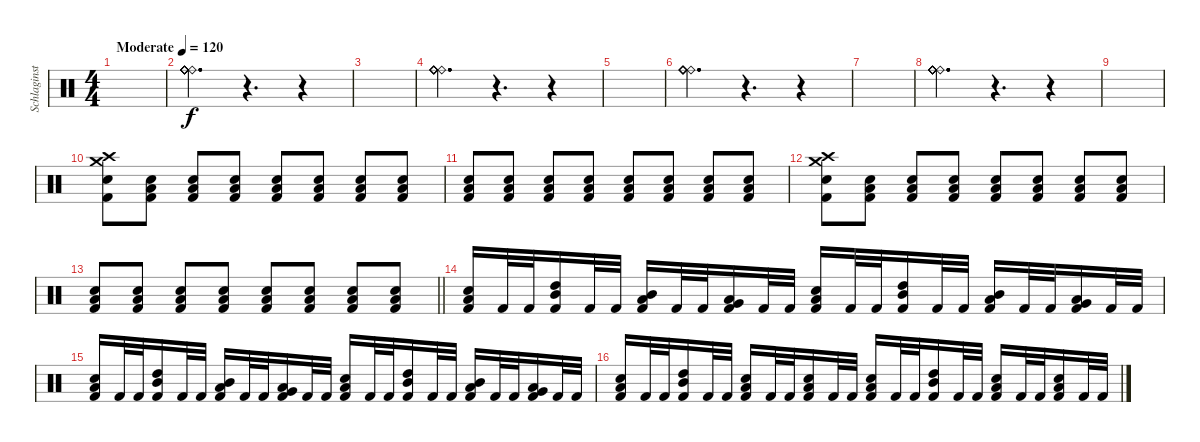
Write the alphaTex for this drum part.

\track ("Schlaginstrumente - Auswahl" "Schlaginst") {instrument percussion}
\staff {score}
\articulation defaults
\ts (4 4)
\tempo (120 "Moderate")
\clef neutral
\ks c
|
("Ride (bell)" "Ride (bell)" "Ride (bell)" "Ride (bell)" "Ride (bell)" "Ride (bell)").4{d} r.4{d} r.4 |
|
("Ride (bell)" "Ride (bell)" "Ride (bell)" "Ride (bell)" "Ride (bell)" "Ride (bell)").4{d} r.4{d} r.4 |
|
("Ride (bell)" "Ride (bell)" "Ride (bell)" "Ride (bell)" "Ride (bell)" "Ride (bell)").4{d} r.4{d} r.4 |
|
("Ride (bell)" "Ride (bell)" "Ride (bell)" "Ride (bell)" "Ride (bell)" "Ride (bell)").4{d} r.4{d} r.4 |
|
("Crash medium (hit)" "Crash high (hit)" "Kick (hit) 2" "Electric Snare (hit)").8 ("Kick (hit) 2" "Low Floor Tom (hit)" "Electric Snare (hit)").8 ("Kick (hit) 2" "Low Floor Tom (hit)" "Electric Snare (hit)").8 ("Kick (hit) 2" "Low Floor Tom (hit)" "Electric Snare (hit)").8 ("Kick (hit) 2" "Low Floor Tom (hit)" "Electric Snare (hit)").8 ("Kick (hit) 2" "Low Floor Tom (hit)" "Electric Snare (hit)").8 ("Kick (hit) 2" "Low Floor Tom (hit)" "Electric Snare (hit)").8 ("Kick (hit) 2" "Low Floor Tom (hit)" "Electric Snare (hit)").8 |
("Kick (hit) 2" "Low Floor Tom (hit)" "Electric Snare (hit)").8 ("Kick (hit) 2" "Low Floor Tom (hit)" "Electric Snare (hit)").8 ("Kick (hit) 2" "Low Floor Tom (hit)" "Electric Snare (hit)").8 ("Kick (hit) 2" "Low Floor Tom (hit)" "Electric Snare (hit)").8 ("Kick (hit) 2" "Low Floor Tom (hit)" "Electric Snare (hit)").8 ("Kick (hit) 2" "Low Floor Tom (hit)" "Electric Snare (hit)").8 ("Kick (hit) 2" "Low Floor Tom (hit)" "Electric Snare (hit)").8 ("Kick (hit) 2" "Low Floor Tom (hit)" "Electric Snare (hit)").8 |
("Crash medium (hit)" "Crash high (hit)" "Kick (hit) 2" "Electric Snare (hit)").8 ("Kick (hit) 2" "Low Floor Tom (hit)" "Electric Snare (hit)").8 ("Kick (hit) 2" "Low Floor Tom (hit)" "Electric Snare (hit)").8 ("Kick (hit) 2" "Low Floor Tom (hit)" "Electric Snare (hit)").8 ("Kick (hit) 2" "Low Floor Tom (hit)" "Electric Snare (hit)").8 ("Kick (hit) 2" "Low Floor Tom (hit)" "Electric Snare (hit)").8 ("Kick (hit) 2" "Low Floor Tom (hit)" "Electric Snare (hit)").8 ("Kick (hit) 2" "Low Floor Tom (hit)" "Electric Snare (hit)").8 |
\barLineRight lightlight
("Kick (hit) 2" "Low Floor Tom (hit)" "Electric Snare (hit)").8 ("Kick (hit) 2" "Low Floor Tom (hit)" "Electric Snare (hit)").8 ("Kick (hit) 2" "Low Floor Tom (hit)" "Electric Snare (hit)").8 ("Kick (hit) 2" "Low Floor Tom (hit)" "Electric Snare (hit)").8 ("Kick (hit) 2" "Low Floor Tom (hit)" "Electric Snare (hit)").8 ("Kick (hit) 2" "Low Floor Tom (hit)" "Electric Snare (hit)").8 ("Kick (hit) 2" "Low Floor Tom (hit)" "Electric Snare (hit)").8 ("Kick (hit) 2" "Low Floor Tom (hit)" "Electric Snare (hit)").8 |
("Low Floor Tom (hit)" "Electric Snare (hit)" "Kick (hit) 2").16 "Kick (hit) 2".32 "Kick (hit) 2".32 ("High Tom (hit)" "Mid Tom (hit)" "Kick (hit) 2").16 "Kick (hit) 2".32 "Kick (hit) 2".32 ("Mid Tom (hit)" "Low Tom (hit)" "Kick (hit) 2").16 "Kick (hit) 2".32 "Kick (hit) 2".32 ("Very Low Tom (hit)" "Low Tom (hit)" "Kick (hit) 2").16 "Kick (hit) 2".32 "Kick (hit) 2".32 ("Low Floor Tom (hit)" "Electric Snare (hit)" "Kick (hit) 2").16 "Kick (hit) 2".32 "Kick (hit) 2".32 ("High Tom (hit)" "Mid Tom (hit)" "Kick (hit) 2").16 "Kick (hit) 2".32 "Kick (hit) 2".32 ("Mid Tom (hit)" "Low Tom (hit)" "Kick (hit) 2").16 "Kick (hit) 2".32 "Kick (hit) 2".32 ("Very Low Tom (hit)" "Low Tom (hit)" "Kick (hit) 2").16 "Kick (hit) 2".32 "Kick (hit) 2".32 |
("Low Floor Tom (hit)" "Electric Snare (hit)" "Kick (hit) 2").16 "Kick (hit) 2".32 "Kick (hit) 2".32 ("High Tom (hit)" "Mid Tom (hit)" "Kick (hit) 2").16 "Kick (hit) 2".32 "Kick (hit) 2".32 ("Mid Tom (hit)" "Low Tom (hit)" "Kick (hit) 2").16 "Kick (hit) 2".32 "Kick (hit) 2".32 ("Very Low Tom (hit)" "Low Tom (hit)" "Kick (hit) 2").16 "Kick (hit) 2".32 "Kick (hit) 2".32 ("Low Floor Tom (hit)" "Electric Snare (hit)" "Kick (hit) 2").16 "Kick (hit) 2".32 "Kick (hit) 2".32 ("High Tom (hit)" "Mid Tom (hit)" "Kick (hit) 2").16 "Kick (hit) 2".32 "Kick (hit) 2".32 ("Mid Tom (hit)" "Low Tom (hit)" "Kick (hit) 2").16 "Kick (hit) 2".32 "Kick (hit) 2".32 ("Very Low Tom (hit)" "Low Tom (hit)" "Kick (hit) 2").16 "Kick (hit) 2".32 "Kick (hit) 2".32 |
("Low Floor Tom (hit)" "Electric Snare (hit)" "Kick (hit) 2").16 "Kick (hit) 2".32 "Kick (hit) 2".32 ("High Tom (hit)" "Mid Tom (hit)" "Kick (hit) 2").16 "Kick (hit) 2".32 "Kick (hit) 2".32 ("Low Floor Tom (hit)" "Electric Snare (hit)" "Kick (hit) 2").16 "Kick (hit) 2".32 "Kick (hit) 2".32 ("Low Floor Tom (hit)" "Electric Snare (hit)" "Kick (hit) 2").16 "Kick (hit) 2".32 "Kick (hit) 2".32 ("Low Floor Tom (hit)" "Electric Snare (hit)" "Kick (hit) 2").16 "Kick (hit) 2".32 "Kick (hit) 2".32 ("High Tom (hit)" "Mid Tom (hit)" "Kick (hit) 2").16 "Kick (hit) 2".32 "Kick (hit) 2".32 ("Low Floor Tom (hit)" "Electric Snare (hit)" "Kick (hit) 2").16 "Kick (hit) 2".32 "Kick (hit) 2".32 ("Low Floor Tom (hit)" "Electric Snare (hit)" "Kick (hit) 2").16 "Kick (hit) 2".32 "Kick (hit) 2".32
